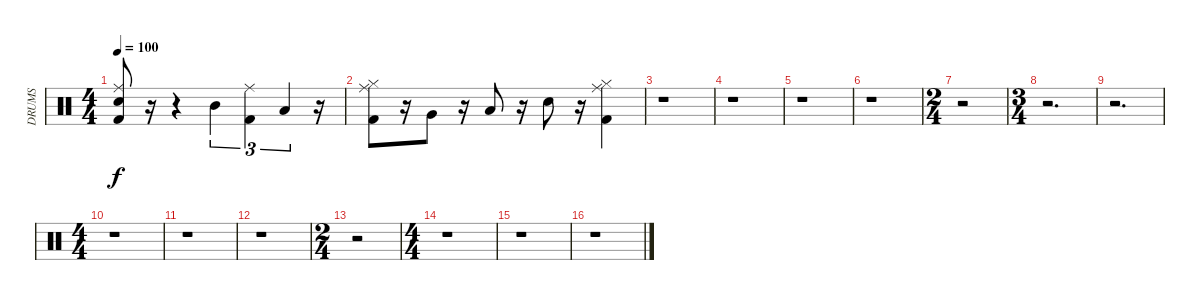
\track ("DRUMS" "DRUMS") {instrument percussion}
\staff {score}
\articulation defaults
\ts (4 4)
\tempo 100
\clef neutral
\ks c
("Snare (hit)" "Ride (middle)" "Kick (hit) 2").8{dy f} r.16 r.4 "Mid Tom (hit)".4{tu (3 2)} ("Ride (middle)" "Kick (hit) 2").4{tu (3 2)} "Low Tom (hit)".4{tu (3 2)} r.16 |
("Ride (middle)" "Kick (hit) 2" "Hi-Hat (closed)").8 r.16 "Very Low Tom (hit)".8 r.16 "Low Floor Tom (hit)".8 r.16 "Snare (hit) 2".8 r.16 ("Ride (middle)" "Kick (hit) 2" "Hi-Hat (closed)").4 |
r.1 |
r.1 |
r.1 |
r.1 |
\ts (2 4)
r.2 |
\ts (3 4)
r.2{d} |
r.2{d} |
\ts (4 4)
r.1 |
r.1 |
r.1 |
\ts (2 4)
r.2 |
\ts (4 4)
r.1 |
r.1 |
r.1
